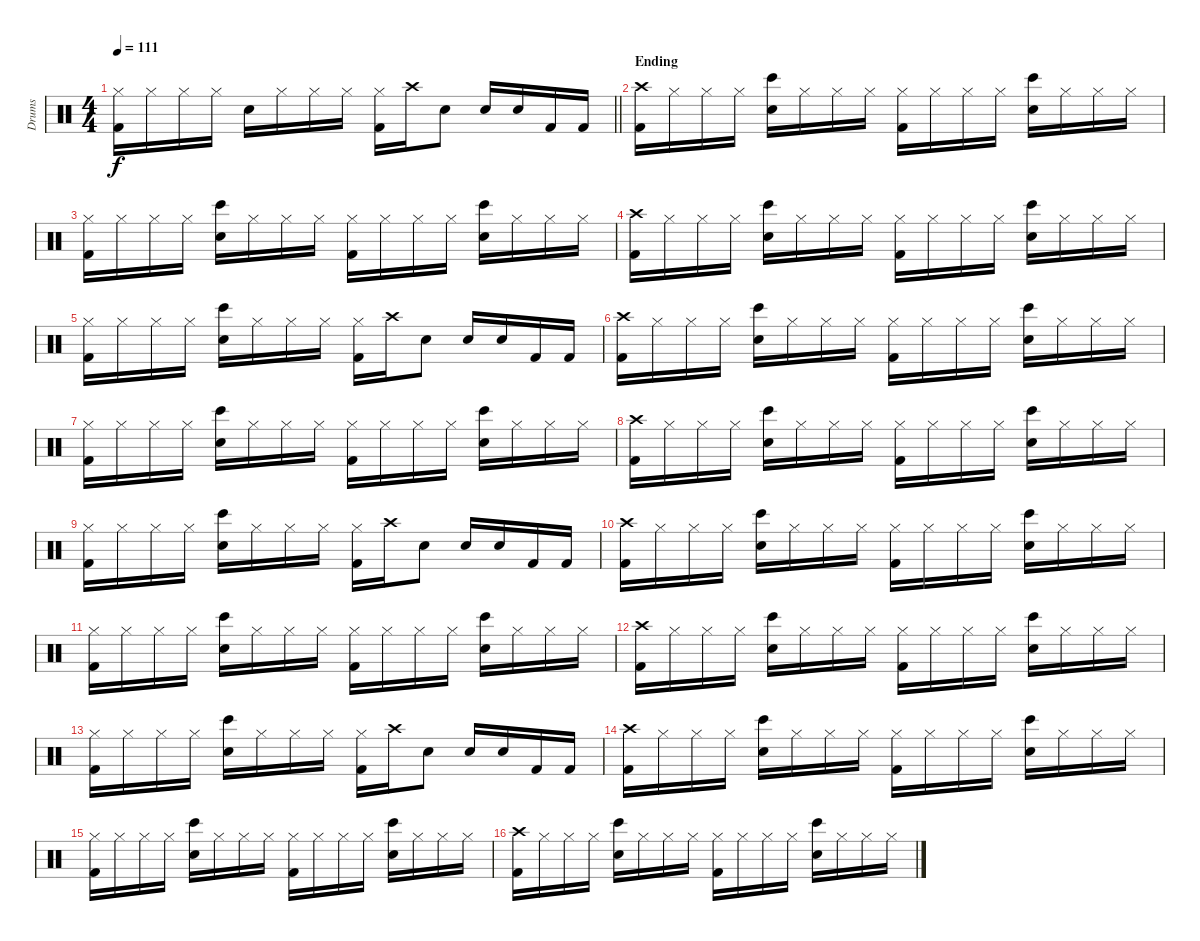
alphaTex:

\track ("Drums" "Drums") {instrument percussion}
\staff {score}
\articulation defaults
\ts (4 4)
\tempo 111
\clef neutral
\barLineRight lightlight
\ks c
("Hi-Hat (closed)" "Kick (hit) 2").16{dy f} "Hi-Hat (closed)".16 "Hi-Hat (closed)".16 "Hi-Hat (closed)".16 "Snare (hit) 2".16 "Hi-Hat (closed)".16 "Hi-Hat (closed)".16 "Hi-Hat (closed)".16 ("Hi-Hat (closed)" "Kick (hit) 2").16 "Crash high (hit)".16 "Snare (hit) 2".8 "Snare (hit) 2".16 "Snare (hit) 2".16 "Kick (hit) 2".16 "Kick (hit) 2".16 |
\section ("" "Ending")
("Crash high (hit)" "Kick (hit) 2").16 "Hi-Hat (closed)".16 "Hi-Hat (closed)".16 "Hi-Hat (closed)".16 ("Bongo High (hit)" "Snare (hit) 2").16 "Hi-Hat (closed)".16 "Hi-Hat (closed)".16 "Hi-Hat (closed)".16 ("Hi-Hat (closed)" "Kick (hit) 2").16 "Hi-Hat (closed)".16 "Hi-Hat (closed)".16 "Hi-Hat (closed)".16 ("Bongo High (hit)" "Snare (hit) 2").16 "Hi-Hat (closed)".16 "Hi-Hat (closed)".16 "Hi-Hat (closed)".16 |
("Hi-Hat (closed)" "Kick (hit) 2").16 "Hi-Hat (closed)".16 "Hi-Hat (closed)".16 "Hi-Hat (closed)".16 ("Bongo High (hit)" "Snare (hit) 2").16 "Hi-Hat (closed)".16 "Hi-Hat (closed)".16 "Hi-Hat (closed)".16 ("Hi-Hat (closed)" "Kick (hit) 2").16 "Hi-Hat (closed)".16 "Hi-Hat (closed)".16 "Hi-Hat (closed)".16 ("Bongo High (hit)" "Snare (hit) 2").16 "Hi-Hat (closed)".16 "Hi-Hat (closed)".16 "Hi-Hat (closed)".16 |
("Crash high (hit)" "Kick (hit) 2").16 "Hi-Hat (closed)".16 "Hi-Hat (closed)".16 "Hi-Hat (closed)".16 ("Bongo High (hit)" "Snare (hit) 2").16 "Hi-Hat (closed)".16 "Hi-Hat (closed)".16 "Hi-Hat (closed)".16 ("Hi-Hat (closed)" "Kick (hit) 2").16 "Hi-Hat (closed)".16 "Hi-Hat (closed)".16 "Hi-Hat (closed)".16 ("Bongo High (hit)" "Snare (hit) 2").16 "Hi-Hat (closed)".16 "Hi-Hat (closed)".16 "Hi-Hat (closed)".16 |
("Hi-Hat (closed)" "Kick (hit) 2").16 "Hi-Hat (closed)".16 "Hi-Hat (closed)".16 "Hi-Hat (closed)".16 ("Bongo High (hit)" "Snare (hit) 2").16 "Hi-Hat (closed)".16 "Hi-Hat (closed)".16 "Hi-Hat (closed)".16 ("Hi-Hat (closed)" "Kick (hit) 2").16 "Crash high (hit)".16 "Snare (hit) 2".8 "Snare (hit) 2".16 "Snare (hit) 2".16 "Kick (hit) 2".16 "Kick (hit) 2".16 |
("Crash high (hit)" "Kick (hit) 2").16 "Hi-Hat (closed)".16 "Hi-Hat (closed)".16 "Hi-Hat (closed)".16 ("Bongo High (hit)" "Snare (hit) 2").16 "Hi-Hat (closed)".16 "Hi-Hat (closed)".16 "Hi-Hat (closed)".16 ("Hi-Hat (closed)" "Kick (hit) 2").16 "Hi-Hat (closed)".16 "Hi-Hat (closed)".16 "Hi-Hat (closed)".16 ("Bongo High (hit)" "Snare (hit) 2").16 "Hi-Hat (closed)".16 "Hi-Hat (closed)".16 "Hi-Hat (closed)".16 |
("Hi-Hat (closed)" "Kick (hit) 2").16 "Hi-Hat (closed)".16 "Hi-Hat (closed)".16 "Hi-Hat (closed)".16 ("Bongo High (hit)" "Snare (hit) 2").16 "Hi-Hat (closed)".16 "Hi-Hat (closed)".16 "Hi-Hat (closed)".16 ("Hi-Hat (closed)" "Kick (hit) 2").16 "Hi-Hat (closed)".16 "Hi-Hat (closed)".16 "Hi-Hat (closed)".16 ("Bongo High (hit)" "Snare (hit) 2").16 "Hi-Hat (closed)".16 "Hi-Hat (closed)".16 "Hi-Hat (closed)".16 |
("Crash high (hit)" "Kick (hit) 2").16 "Hi-Hat (closed)".16 "Hi-Hat (closed)".16 "Hi-Hat (closed)".16 ("Bongo High (hit)" "Snare (hit) 2").16 "Hi-Hat (closed)".16 "Hi-Hat (closed)".16 "Hi-Hat (closed)".16 ("Hi-Hat (closed)" "Kick (hit) 2").16 "Hi-Hat (closed)".16 "Hi-Hat (closed)".16 "Hi-Hat (closed)".16 ("Bongo High (hit)" "Snare (hit) 2").16 "Hi-Hat (closed)".16 "Hi-Hat (closed)".16 "Hi-Hat (closed)".16 |
("Hi-Hat (closed)" "Kick (hit) 2").16 "Hi-Hat (closed)".16 "Hi-Hat (closed)".16 "Hi-Hat (closed)".16 ("Bongo High (hit)" "Snare (hit) 2").16 "Hi-Hat (closed)".16 "Hi-Hat (closed)".16 "Hi-Hat (closed)".16 ("Hi-Hat (closed)" "Kick (hit) 2").16 "Crash high (hit)".16 "Snare (hit) 2".8 "Snare (hit) 2".16 "Snare (hit) 2".16 "Kick (hit) 2".16 "Kick (hit) 2".16 |
("Crash high (hit)" "Kick (hit) 2").16 "Hi-Hat (closed)".16 "Hi-Hat (closed)".16 "Hi-Hat (closed)".16 ("Bongo High (hit)" "Snare (hit) 2").16 "Hi-Hat (closed)".16 "Hi-Hat (closed)".16 "Hi-Hat (closed)".16 ("Hi-Hat (closed)" "Kick (hit) 2").16 "Hi-Hat (closed)".16 "Hi-Hat (closed)".16 "Hi-Hat (closed)".16 ("Bongo High (hit)" "Snare (hit) 2").16 "Hi-Hat (closed)".16 "Hi-Hat (closed)".16 "Hi-Hat (closed)".16 |
("Hi-Hat (closed)" "Kick (hit) 2").16 "Hi-Hat (closed)".16 "Hi-Hat (closed)".16 "Hi-Hat (closed)".16 ("Bongo High (hit)" "Snare (hit) 2").16 "Hi-Hat (closed)".16 "Hi-Hat (closed)".16 "Hi-Hat (closed)".16 ("Hi-Hat (closed)" "Kick (hit) 2").16 "Hi-Hat (closed)".16 "Hi-Hat (closed)".16 "Hi-Hat (closed)".16 ("Bongo High (hit)" "Snare (hit) 2").16 "Hi-Hat (closed)".16 "Hi-Hat (closed)".16 "Hi-Hat (closed)".16 |
("Crash high (hit)" "Kick (hit) 2").16 "Hi-Hat (closed)".16 "Hi-Hat (closed)".16 "Hi-Hat (closed)".16 ("Bongo High (hit)" "Snare (hit) 2").16 "Hi-Hat (closed)".16 "Hi-Hat (closed)".16 "Hi-Hat (closed)".16 ("Hi-Hat (closed)" "Kick (hit) 2").16 "Hi-Hat (closed)".16 "Hi-Hat (closed)".16 "Hi-Hat (closed)".16 ("Bongo High (hit)" "Snare (hit) 2").16 "Hi-Hat (closed)".16 "Hi-Hat (closed)".16 "Hi-Hat (closed)".16 |
("Hi-Hat (closed)" "Kick (hit) 2").16 "Hi-Hat (closed)".16 "Hi-Hat (closed)".16 "Hi-Hat (closed)".16 ("Bongo High (hit)" "Snare (hit) 2").16 "Hi-Hat (closed)".16 "Hi-Hat (closed)".16 "Hi-Hat (closed)".16 ("Hi-Hat (closed)" "Kick (hit) 2").16 "Crash high (hit)".16 "Snare (hit) 2".8 "Snare (hit) 2".16 "Snare (hit) 2".16 "Kick (hit) 2".16 "Kick (hit) 2".16 |
("Crash high (hit)" "Kick (hit) 2").16 "Hi-Hat (closed)".16 "Hi-Hat (closed)".16 "Hi-Hat (closed)".16 ("Bongo High (hit)" "Snare (hit) 2").16 "Hi-Hat (closed)".16 "Hi-Hat (closed)".16 "Hi-Hat (closed)".16 ("Hi-Hat (closed)" "Kick (hit) 2").16 "Hi-Hat (closed)".16 "Hi-Hat (closed)".16 "Hi-Hat (closed)".16 ("Bongo High (hit)" "Snare (hit) 2").16 "Hi-Hat (closed)".16 "Hi-Hat (closed)".16 "Hi-Hat (closed)".16 |
("Hi-Hat (closed)" "Kick (hit) 2").16 "Hi-Hat (closed)".16 "Hi-Hat (closed)".16 "Hi-Hat (closed)".16 ("Bongo High (hit)" "Snare (hit) 2").16 "Hi-Hat (closed)".16 "Hi-Hat (closed)".16 "Hi-Hat (closed)".16 ("Hi-Hat (closed)" "Kick (hit) 2").16 "Hi-Hat (closed)".16 "Hi-Hat (closed)".16 "Hi-Hat (closed)".16 ("Bongo High (hit)" "Snare (hit) 2").16 "Hi-Hat (closed)".16 "Hi-Hat (closed)".16 "Hi-Hat (closed)".16 |
("Crash high (hit)" "Kick (hit) 2").16 "Hi-Hat (closed)".16 "Hi-Hat (closed)".16 "Hi-Hat (closed)".16 ("Bongo High (hit)" "Snare (hit) 2").16 "Hi-Hat (closed)".16 "Hi-Hat (closed)".16 "Hi-Hat (closed)".16 ("Hi-Hat (closed)" "Kick (hit) 2").16 "Hi-Hat (closed)".16 "Hi-Hat (closed)".16 "Hi-Hat (closed)".16 ("Bongo High (hit)" "Snare (hit) 2").16 "Hi-Hat (closed)".16 "Hi-Hat (closed)".16 "Hi-Hat (closed)".16
